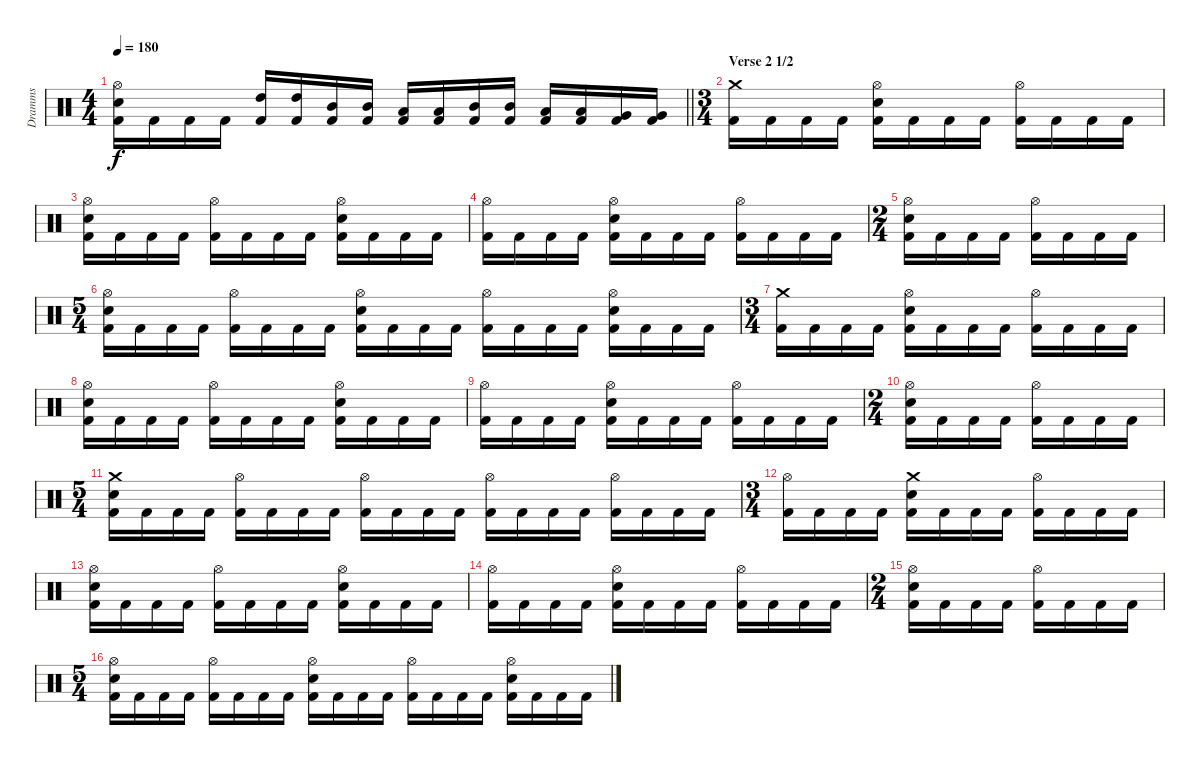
\track ("Dramms" "Dramms") {instrument percussion}
\staff {score}
\articulation defaults
\ts (4 4)
\tempo 180
\clef neutral
\barLineRight lightlight
\ks c
("Hi-Hat (open)" "Electric Snare (hit)" "Kick (hit) 2").16{dy f} "Kick (hit) 2".16 "Kick (hit) 2".16 "Kick (hit) 2".16 ("High Tom (hit)" "Kick (hit) 2").16 ("High Tom (hit)" "Kick (hit) 2").16 ("Mid Tom (hit)" "Kick (hit) 2").16 ("Mid Tom (hit)" "Kick (hit) 2").16 ("Low Tom (hit)" "Kick (hit) 2").16 ("Low Tom (hit)" "Kick (hit) 2").16 ("Mid Tom (hit)" "Kick (hit) 2").16 ("Mid Tom (hit)" "Kick (hit) 2").16 ("Low Tom (hit)" "Kick (hit) 2").16 ("Low Tom (hit)" "Kick (hit) 2").16 ("Very Low Tom (hit)" "Kick (hit) 2").16 ("Very Low Tom (hit)" "Kick (hit) 2").16 |
\ts (3 4)
\section ("" "Verse 2 1/2")
("Crash medium (hit)" "Kick (hit) 2").16 "Kick (hit) 2".16 "Kick (hit) 2".16 "Kick (hit) 2".16 ("Hi-Hat (open)" "Electric Snare (hit)" "Kick (hit) 2").16 "Kick (hit) 2".16 "Kick (hit) 2".16 "Kick (hit) 2".16 ("Hi-Hat (open)" "Kick (hit) 2").16 "Kick (hit) 2".16 "Kick (hit) 2".16 "Kick (hit) 2".16 |
("Hi-Hat (open)" "Electric Snare (hit)" "Kick (hit) 2").16 "Kick (hit) 2".16 "Kick (hit) 2".16 "Kick (hit) 2".16 ("Hi-Hat (open)" "Kick (hit) 2").16 "Kick (hit) 2".16 "Kick (hit) 2".16 "Kick (hit) 2".16 ("Hi-Hat (open)" "Electric Snare (hit)" "Kick (hit) 2").16 "Kick (hit) 2".16 "Kick (hit) 2".16 "Kick (hit) 2".16 |
("Hi-Hat (open)" "Kick (hit) 2").16 "Kick (hit) 2".16 "Kick (hit) 2".16 "Kick (hit) 2".16 ("Hi-Hat (open)" "Electric Snare (hit)" "Kick (hit) 2").16 "Kick (hit) 2".16 "Kick (hit) 2".16 "Kick (hit) 2".16 ("Hi-Hat (open)" "Kick (hit) 2").16 "Kick (hit) 2".16 "Kick (hit) 2".16 "Kick (hit) 2".16 |
\ts (2 4)
("Hi-Hat (open)" "Electric Snare (hit)" "Kick (hit) 2").16 "Kick (hit) 2".16 "Kick (hit) 2".16 "Kick (hit) 2".16 ("Hi-Hat (open)" "Kick (hit) 2").16 "Kick (hit) 2".16 "Kick (hit) 2".16 "Kick (hit) 2".16 |
\ts (5 4)
("Hi-Hat (open)" "Electric Snare (hit)" "Kick (hit) 2").16 "Kick (hit) 2".16 "Kick (hit) 2".16 "Kick (hit) 2".16 ("Hi-Hat (open)" "Kick (hit) 2").16 "Kick (hit) 2".16 "Kick (hit) 2".16 "Kick (hit) 2".16 ("Hi-Hat (open)" "Electric Snare (hit)" "Kick (hit) 2").16 "Kick (hit) 2".16 "Kick (hit) 2".16 "Kick (hit) 2".16 ("Hi-Hat (open)" "Kick (hit) 2").16 "Kick (hit) 2".16 "Kick (hit) 2".16 "Kick (hit) 2".16 ("Hi-Hat (open)" "Electric Snare (hit)" "Kick (hit) 2").16 "Kick (hit) 2".16 "Kick (hit) 2".16 "Kick (hit) 2".16 |
\ts (3 4)
("Crash medium (hit)" "Kick (hit) 2").16 "Kick (hit) 2".16 "Kick (hit) 2".16 "Kick (hit) 2".16 ("Hi-Hat (open)" "Electric Snare (hit)" "Kick (hit) 2").16 "Kick (hit) 2".16 "Kick (hit) 2".16 "Kick (hit) 2".16 ("Hi-Hat (open)" "Kick (hit) 2").16 "Kick (hit) 2".16 "Kick (hit) 2".16 "Kick (hit) 2".16 |
("Hi-Hat (open)" "Electric Snare (hit)" "Kick (hit) 2").16 "Kick (hit) 2".16 "Kick (hit) 2".16 "Kick (hit) 2".16 ("Hi-Hat (open)" "Kick (hit) 2").16 "Kick (hit) 2".16 "Kick (hit) 2".16 "Kick (hit) 2".16 ("Hi-Hat (open)" "Electric Snare (hit)" "Kick (hit) 2").16 "Kick (hit) 2".16 "Kick (hit) 2".16 "Kick (hit) 2".16 |
("Hi-Hat (open)" "Kick (hit) 2").16 "Kick (hit) 2".16 "Kick (hit) 2".16 "Kick (hit) 2".16 ("Hi-Hat (open)" "Electric Snare (hit)" "Kick (hit) 2").16 "Kick (hit) 2".16 "Kick (hit) 2".16 "Kick (hit) 2".16 ("Hi-Hat (open)" "Kick (hit) 2").16 "Kick (hit) 2".16 "Kick (hit) 2".16 "Kick (hit) 2".16 |
\ts (2 4)
("Hi-Hat (open)" "Electric Snare (hit)" "Kick (hit) 2").16 "Kick (hit) 2".16 "Kick (hit) 2".16 "Kick (hit) 2".16 ("Hi-Hat (open)" "Kick (hit) 2").16 "Kick (hit) 2".16 "Kick (hit) 2".16 "Kick (hit) 2".16 |
\ts (5 4)
("Crash medium (hit)" "Electric Snare (hit)" "Kick (hit) 2").16 "Kick (hit) 2".16 "Kick (hit) 2".16 "Kick (hit) 2".16 ("Hi-Hat (open)" "Kick (hit) 2").16 "Kick (hit) 2".16 "Kick (hit) 2".16 "Kick (hit) 2".16 ("Hi-Hat (open)" "Kick (hit) 2").16 "Kick (hit) 2".16 "Kick (hit) 2".16 "Kick (hit) 2".16 ("Hi-Hat (open)" "Kick (hit) 2").16 "Kick (hit) 2".16 "Kick (hit) 2".16 "Kick (hit) 2".16 ("Hi-Hat (open)" "Kick (hit) 2").16 "Kick (hit) 2".16 "Kick (hit) 2".16 "Kick (hit) 2".16 |
\ts (3 4)
("Hi-Hat (open)" "Kick (hit) 2").16 "Kick (hit) 2".16 "Kick (hit) 2".16 "Kick (hit) 2".16 ("Crash medium (hit)" "Electric Snare (hit)" "Kick (hit) 2").16 "Kick (hit) 2".16 "Kick (hit) 2".16 "Kick (hit) 2".16 ("Hi-Hat (open)" "Kick (hit) 2").16 "Kick (hit) 2".16 "Kick (hit) 2".16 "Kick (hit) 2".16 |
("Hi-Hat (open)" "Electric Snare (hit)" "Kick (hit) 2").16 "Kick (hit) 2".16 "Kick (hit) 2".16 "Kick (hit) 2".16 ("Hi-Hat (open)" "Kick (hit) 2").16 "Kick (hit) 2".16 "Kick (hit) 2".16 "Kick (hit) 2".16 ("Hi-Hat (open)" "Electric Snare (hit)" "Kick (hit) 2").16 "Kick (hit) 2".16 "Kick (hit) 2".16 "Kick (hit) 2".16 |
("Hi-Hat (open)" "Kick (hit) 2").16 "Kick (hit) 2".16 "Kick (hit) 2".16 "Kick (hit) 2".16 ("Hi-Hat (open)" "Electric Snare (hit)" "Kick (hit) 2").16 "Kick (hit) 2".16 "Kick (hit) 2".16 "Kick (hit) 2".16 ("Hi-Hat (open)" "Kick (hit) 2").16 "Kick (hit) 2".16 "Kick (hit) 2".16 "Kick (hit) 2".16 |
\ts (2 4)
("Hi-Hat (open)" "Electric Snare (hit)" "Kick (hit) 2").16 "Kick (hit) 2".16 "Kick (hit) 2".16 "Kick (hit) 2".16 ("Hi-Hat (open)" "Kick (hit) 2").16 "Kick (hit) 2".16 "Kick (hit) 2".16 "Kick (hit) 2".16 |
\ts (5 4)
("Hi-Hat (open)" "Electric Snare (hit)" "Kick (hit) 2").16 "Kick (hit) 2".16 "Kick (hit) 2".16 "Kick (hit) 2".16 ("Hi-Hat (open)" "Kick (hit) 2").16 "Kick (hit) 2".16 "Kick (hit) 2".16 "Kick (hit) 2".16 ("Hi-Hat (open)" "Electric Snare (hit)" "Kick (hit) 2").16 "Kick (hit) 2".16 "Kick (hit) 2".16 "Kick (hit) 2".16 ("Hi-Hat (open)" "Kick (hit) 2").16 "Kick (hit) 2".16 "Kick (hit) 2".16 "Kick (hit) 2".16 ("Hi-Hat (open)" "Electric Snare (hit)" "Kick (hit) 2").16 "Kick (hit) 2".16 "Kick (hit) 2".16 "Kick (hit) 2".16
